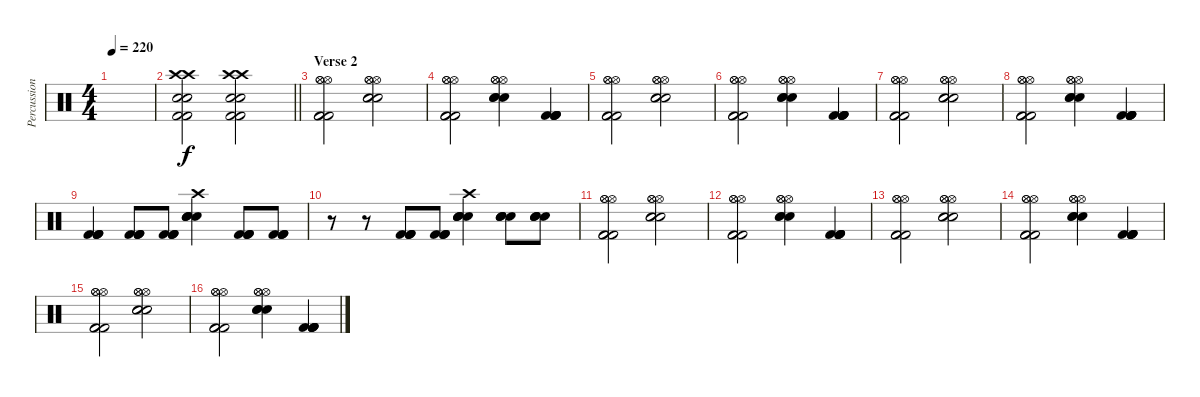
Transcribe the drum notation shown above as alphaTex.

\track ("Percussion" "Percussion") {instrument percussion}
\staff {score}
\articulation defaults
\ts (4 4)
\tempo 220
\clef neutral
\ks c
|
\barLineRight lightlight
("Crash high (hit)" "Crash high (hit)" "Kick (hit) 2" "Kick (hit) 2" "Snare (hit) 2" "Snare (hit) 2").2 ("Crash high (hit)" "Crash high (hit)" "Kick (hit) 2" "Kick (hit) 2" "Snare (hit) 2" "Snare (hit) 2").2 |
\section ("" "Verse 2")
("Hi-Hat (open)" "Hi-Hat (open)" "Hi-Hat (open)" "Kick (hit) 2" "Kick (hit) 2" "Kick (hit) 2").2 ("Hi-Hat (open)" "Hi-Hat (open)" "Hi-Hat (open)" "Snare (hit) 2" "Snare (hit) 2" "Snare (hit) 2").2 |
("Hi-Hat (open)" "Hi-Hat (open)" "Hi-Hat (open)" "Kick (hit) 2" "Kick (hit) 2" "Kick (hit) 2").2 ("Hi-Hat (open)" "Hi-Hat (open)" "Hi-Hat (open)" "Snare (hit) 2" "Snare (hit) 2" "Snare (hit) 2").4 ("Kick (hit) 2" "Kick (hit) 2" "Kick (hit) 2" "Kick (hit) 2" "Kick (hit) 2").4 |
("Hi-Hat (open)" "Hi-Hat (open)" "Hi-Hat (open)" "Kick (hit) 2" "Kick (hit) 2" "Kick (hit) 2").2 ("Hi-Hat (open)" "Hi-Hat (open)" "Hi-Hat (open)" "Snare (hit) 2" "Snare (hit) 2" "Snare (hit) 2").2 |
("Hi-Hat (open)" "Hi-Hat (open)" "Hi-Hat (open)" "Kick (hit) 2" "Kick (hit) 2" "Kick (hit) 2").2 ("Hi-Hat (open)" "Hi-Hat (open)" "Hi-Hat (open)" "Snare (hit) 2" "Snare (hit) 2" "Snare (hit) 2").4 ("Kick (hit) 2" "Kick (hit) 2" "Kick (hit) 2" "Kick (hit) 2" "Kick (hit) 2").4 |
("Hi-Hat (open)" "Hi-Hat (open)" "Hi-Hat (open)" "Kick (hit) 2" "Kick (hit) 2" "Kick (hit) 2").2 ("Hi-Hat (open)" "Hi-Hat (open)" "Hi-Hat (open)" "Snare (hit) 2" "Snare (hit) 2" "Snare (hit) 2").2 |
("Hi-Hat (open)" "Hi-Hat (open)" "Hi-Hat (open)" "Kick (hit) 2" "Kick (hit) 2" "Kick (hit) 2").2 ("Hi-Hat (open)" "Hi-Hat (open)" "Hi-Hat (open)" "Snare (hit) 2" "Snare (hit) 2" "Snare (hit) 2").4 ("Kick (hit) 2" "Kick (hit) 2" "Kick (hit) 2" "Kick (hit) 2" "Kick (hit) 2").4 |
("Kick (hit) 2" "Kick (hit) 2" "Kick (hit) 2" "Kick (hit) 2").4 ("Kick (hit) 2" "Kick (hit) 2" "Kick (hit) 2" "Kick (hit) 2").8 ("Kick (hit) 2" "Kick (hit) 2" "Kick (hit) 2" "Kick (hit) 2").8 ("Crash high (hit)" "Snare (hit) 2" "Snare (hit) 2" "Snare (hit) 2" "Snare (hit) 2").4 ("Kick (hit) 2" "Kick (hit) 2" "Kick (hit) 2" "Kick (hit) 2").8 ("Kick (hit) 2" "Kick (hit) 2" "Kick (hit) 2" "Kick (hit) 2").8 |
r.8 r.8 ("Kick (hit) 2" "Kick (hit) 2" "Kick (hit) 2" "Kick (hit) 2").8 ("Kick (hit) 2" "Kick (hit) 2" "Kick (hit) 2" "Kick (hit) 2").8 ("Crash high (hit)" "Snare (hit) 2" "Snare (hit) 2" "Snare (hit) 2" "Snare (hit) 2").4 ("Snare (hit) 2" "Snare (hit) 2" "Snare (hit) 2" "Snare (hit) 2").8 ("Snare (hit) 2" "Snare (hit) 2" "Snare (hit) 2" "Snare (hit) 2").8 |
("Hi-Hat (open)" "Hi-Hat (open)" "Hi-Hat (open)" "Kick (hit) 2" "Kick (hit) 2" "Kick (hit) 2").2 ("Hi-Hat (open)" "Hi-Hat (open)" "Hi-Hat (open)" "Snare (hit) 2" "Snare (hit) 2" "Snare (hit) 2").2 |
("Hi-Hat (open)" "Hi-Hat (open)" "Hi-Hat (open)" "Kick (hit) 2" "Kick (hit) 2" "Kick (hit) 2").2 ("Hi-Hat (open)" "Hi-Hat (open)" "Hi-Hat (open)" "Snare (hit) 2" "Snare (hit) 2" "Snare (hit) 2").4 ("Kick (hit) 2" "Kick (hit) 2" "Kick (hit) 2" "Kick (hit) 2" "Kick (hit) 2").4 |
("Hi-Hat (open)" "Hi-Hat (open)" "Hi-Hat (open)" "Kick (hit) 2" "Kick (hit) 2" "Kick (hit) 2").2 ("Hi-Hat (open)" "Hi-Hat (open)" "Hi-Hat (open)" "Snare (hit) 2" "Snare (hit) 2" "Snare (hit) 2").2 |
("Hi-Hat (open)" "Hi-Hat (open)" "Hi-Hat (open)" "Kick (hit) 2" "Kick (hit) 2" "Kick (hit) 2").2 ("Hi-Hat (open)" "Hi-Hat (open)" "Hi-Hat (open)" "Snare (hit) 2" "Snare (hit) 2" "Snare (hit) 2").4 ("Kick (hit) 2" "Kick (hit) 2" "Kick (hit) 2" "Kick (hit) 2" "Kick (hit) 2").4 |
("Hi-Hat (open)" "Hi-Hat (open)" "Hi-Hat (open)" "Kick (hit) 2" "Kick (hit) 2" "Kick (hit) 2").2 ("Hi-Hat (open)" "Hi-Hat (open)" "Hi-Hat (open)" "Snare (hit) 2" "Snare (hit) 2" "Snare (hit) 2").2 |
("Hi-Hat (open)" "Hi-Hat (open)" "Hi-Hat (open)" "Kick (hit) 2" "Kick (hit) 2" "Kick (hit) 2").2 ("Hi-Hat (open)" "Hi-Hat (open)" "Hi-Hat (open)" "Snare (hit) 2" "Snare (hit) 2" "Snare (hit) 2").4 ("Kick (hit) 2" "Kick (hit) 2" "Kick (hit) 2" "Kick (hit) 2" "Kick (hit) 2").4
